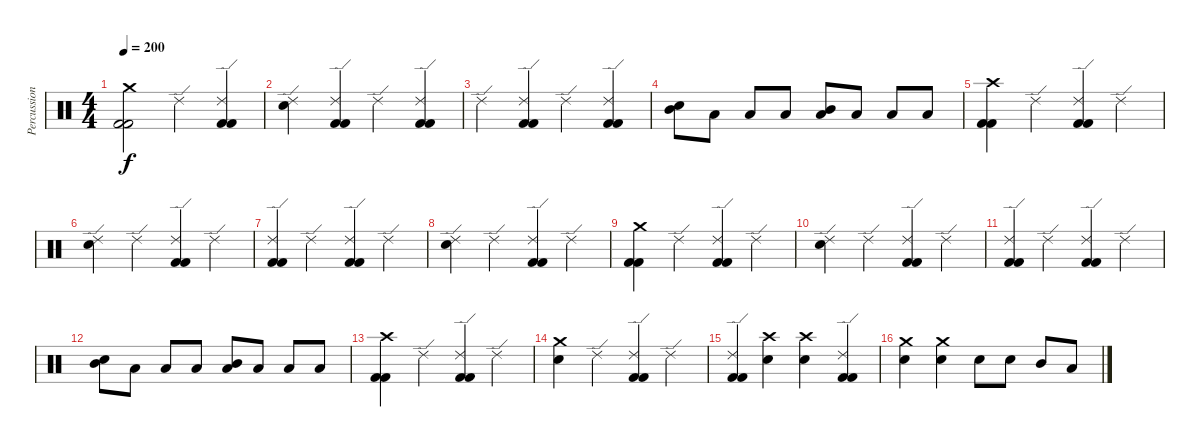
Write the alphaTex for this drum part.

\track ("Percussion" "Percussion") {instrument percussion}
\staff {score}
\articulation defaults
\ts (4 4)
\tempo 200
\clef neutral
\ks c
("Crash medium (hit)" "Kick (hit) 2" "Kick (hit) 2").2{dy f} "Ride (edge) 2".4 ("Kick (hit) 2" "Kick (hit) 2" "Ride (edge) 2").4 |
("Ride (edge) 2" "Electric Snare (hit)").4 ("Kick (hit) 2" "Kick (hit) 2" "Ride (edge) 2").4 "Ride (edge) 2".4 ("Ride (edge) 2" "Kick (hit) 2" "Kick (hit) 2").4 |
"Ride (edge) 2".4 ("Kick (hit) 2" "Kick (hit) 2" "Ride (edge) 2").4 "Ride (edge) 2".4 ("Ride (edge) 2" "Kick (hit) 2" "Kick (hit) 2").4 |
("Electric Snare (hit)" "Mid Tom (hit)").8 "Low Tom (hit)".8 "Low Tom (hit)".8 "Low Tom (hit)".8 ("Low Tom (hit)" "Mid Tom (hit)").8 "Low Tom (hit)".8 "Low Tom (hit)".8 "Low Tom (hit)".8 |
("Crash high (hit)" "Kick (hit) 2" "Kick (hit) 2").4 "Ride (edge) 2".4 ("Ride (edge) 2" "Kick (hit) 2" "Kick (hit) 2").4 "Ride (edge) 2".4 |
("Ride (edge) 2" "Electric Snare (hit)").4 "Ride (edge) 2".4 ("Ride (edge) 2" "Kick (hit) 2" "Kick (hit) 2").4 "Ride (edge) 2".4 |
("Ride (edge) 2" "Kick (hit) 2" "Kick (hit) 2").4 "Ride (edge) 2".4 ("Ride (edge) 2" "Kick (hit) 2" "Kick (hit) 2").4 "Ride (edge) 2".4 |
("Ride (edge) 2" "Electric Snare (hit)").4 "Ride (edge) 2".4 ("Ride (edge) 2" "Kick (hit) 2" "Kick (hit) 2").4 "Ride (edge) 2".4 |
("Crash medium (hit)" "Kick (hit) 2" "Kick (hit) 2").4 "Ride (edge) 2".4 ("Ride (edge) 2" "Kick (hit) 2" "Kick (hit) 2").4 "Ride (edge) 2".4 |
("Ride (edge) 2" "Electric Snare (hit)").4 "Ride (edge) 2".4 ("Ride (edge) 2" "Kick (hit) 2" "Kick (hit) 2").4 "Ride (edge) 2".4 |
("Ride (edge) 2" "Kick (hit) 2" "Kick (hit) 2").4 "Ride (edge) 2".4 ("Ride (edge) 2" "Kick (hit) 2" "Kick (hit) 2").4 "Ride (edge) 2".4 |
("Electric Snare (hit)" "Mid Tom (hit)").8 "Low Tom (hit)".8 "Low Tom (hit)".8 "Low Tom (hit)".8 ("Low Tom (hit)" "Mid Tom (hit)").8 "Low Tom (hit)".8 "Low Tom (hit)".8 "Low Tom (hit)".8 |
("Crash high (hit)" "Kick (hit) 2" "Kick (hit) 2").4 "Ride (edge) 2".4 ("Ride (edge) 2" "Kick (hit) 2" "Kick (hit) 2").4 "Ride (edge) 2".4 |
("Crash medium (hit)" "Electric Snare (hit)").4 "Ride (edge) 2".4 ("Ride (edge) 2" "Kick (hit) 2" "Kick (hit) 2").4 "Ride (edge) 2".4 |
("Ride (edge) 2" "Kick (hit) 2" "Kick (hit) 2").4 ("Crash high (hit)" "Electric Snare (hit)").4 ("Crash high (hit)" "Electric Snare (hit)").4 ("Ride (edge) 2" "Kick (hit) 2" "Kick (hit) 2").4 |
("Crash medium (hit)" "Electric Snare (hit)").4 ("Crash medium (hit)" "Electric Snare (hit)").4 "Electric Snare (hit)".8 "Electric Snare (hit)".8 "Mid Tom (hit)".8 "Low Tom (hit)".8
